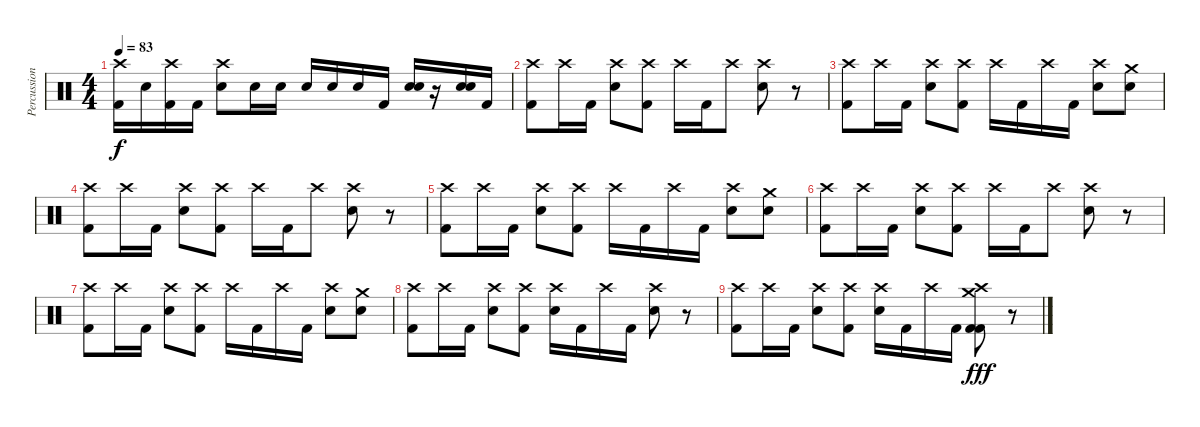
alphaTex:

\track ("Percussions" "Percussion") {instrument percussion}
\staff {score}
\articulation defaults
\ts (4 4)
\tempo 83
\clef neutral
\ks c
("Crash high (hit)" "Kick (hit) 2").16{dy f} "Electric Snare (hit)".16 ("Crash high (hit)" "Kick (hit) 2").16 "Kick (hit) 2".16 ("Crash high (hit)" "Electric Snare (hit)").8 "Electric Snare (hit)".16 "Electric Snare (hit)".16 "Electric Snare (hit)".16 "Electric Snare (hit)".16 "Electric Snare (hit)".16 "Kick (hit) 2".16 ("Electric Snare (hit)" "Electric Snare (hit)").16 r.16 ("Electric Snare (hit)" "Electric Snare (hit)").16 "Kick (hit) 2".16 |
("Crash high (hit)" "Kick (hit) 2").8 "Crash high (hit)".16 "Kick (hit) 2".16 ("Crash high (hit)" "Electric Snare (hit)").8 ("Crash high (hit)" "Kick (hit) 2").8 "Crash high (hit)".16 "Kick (hit) 2".16 "Crash high (hit)".8 ("Crash high (hit)" "Electric Snare (hit)").8 r.8 |
("Crash high (hit)" "Kick (hit) 2").8 "Crash high (hit)".16 "Kick (hit) 2".16 ("Crash high (hit)" "Electric Snare (hit)").8 ("Crash high (hit)" "Kick (hit) 2").8 "Crash high (hit)".16 "Kick (hit) 2".16 "Crash high (hit)".16 "Kick (hit) 2".16 ("Crash high (hit)" "Electric Snare (hit)").8 ("Crash medium (hit)" "Electric Snare (hit)").8 |
("Crash high (hit)" "Kick (hit) 2").8 "Crash high (hit)".16 "Kick (hit) 2".16 ("Crash high (hit)" "Electric Snare (hit)").8 ("Crash high (hit)" "Kick (hit) 2").8 "Crash high (hit)".16 "Kick (hit) 2".16 "Crash high (hit)".8 ("Crash high (hit)" "Electric Snare (hit)").8 r.8 |
("Crash high (hit)" "Kick (hit) 2").8 "Crash high (hit)".16 "Kick (hit) 2".16 ("Crash high (hit)" "Electric Snare (hit)").8 ("Crash high (hit)" "Kick (hit) 2").8 "Crash high (hit)".16 "Kick (hit) 2".16 "Crash high (hit)".16 "Kick (hit) 2".16 ("Crash high (hit)" "Electric Snare (hit)").8 ("Crash medium (hit)" "Electric Snare (hit)").8 |
("Crash high (hit)" "Kick (hit) 2").8 "Crash high (hit)".16 "Kick (hit) 2".16 ("Crash high (hit)" "Electric Snare (hit)").8 ("Crash high (hit)" "Kick (hit) 2").8 "Crash high (hit)".16 "Kick (hit) 2".16 "Crash high (hit)".8 ("Crash high (hit)" "Electric Snare (hit)").8 r.8 |
("Crash high (hit)" "Kick (hit) 2").8 "Crash high (hit)".16 "Kick (hit) 2".16 ("Crash high (hit)" "Electric Snare (hit)").8 ("Crash high (hit)" "Kick (hit) 2").8 "Crash high (hit)".16 "Kick (hit) 2".16 "Crash high (hit)".16 "Kick (hit) 2".16 ("Crash high (hit)" "Electric Snare (hit)").8 ("Crash medium (hit)" "Electric Snare (hit)").8 |
("Crash high (hit)" "Kick (hit) 2").8 "Crash high (hit)".16 "Kick (hit) 2".16 ("Crash high (hit)" "Electric Snare (hit)").8 ("Crash high (hit)" "Kick (hit) 2").8 ("Crash high (hit)" "Electric Snare (hit)").16 "Kick (hit) 2".16 "Crash high (hit)".16 "Kick (hit) 2".16 ("Crash high (hit)" "Electric Snare (hit)").8 r.8 |
("Crash high (hit)" "Kick (hit) 2").8 "Crash high (hit)".16 "Kick (hit) 2".16 ("Crash high (hit)" "Electric Snare (hit)").8 ("Crash high (hit)" "Kick (hit) 2").8 ("Crash high (hit)" "Electric Snare (hit)").16 "Kick (hit) 2".16 "Crash high (hit)".16 "Kick (hit) 2".16 ("Crash high (hit)" "Crash medium (hit)" "Kick (hit) 2" "Kick (hit) 2").8{dy fff} r.8
